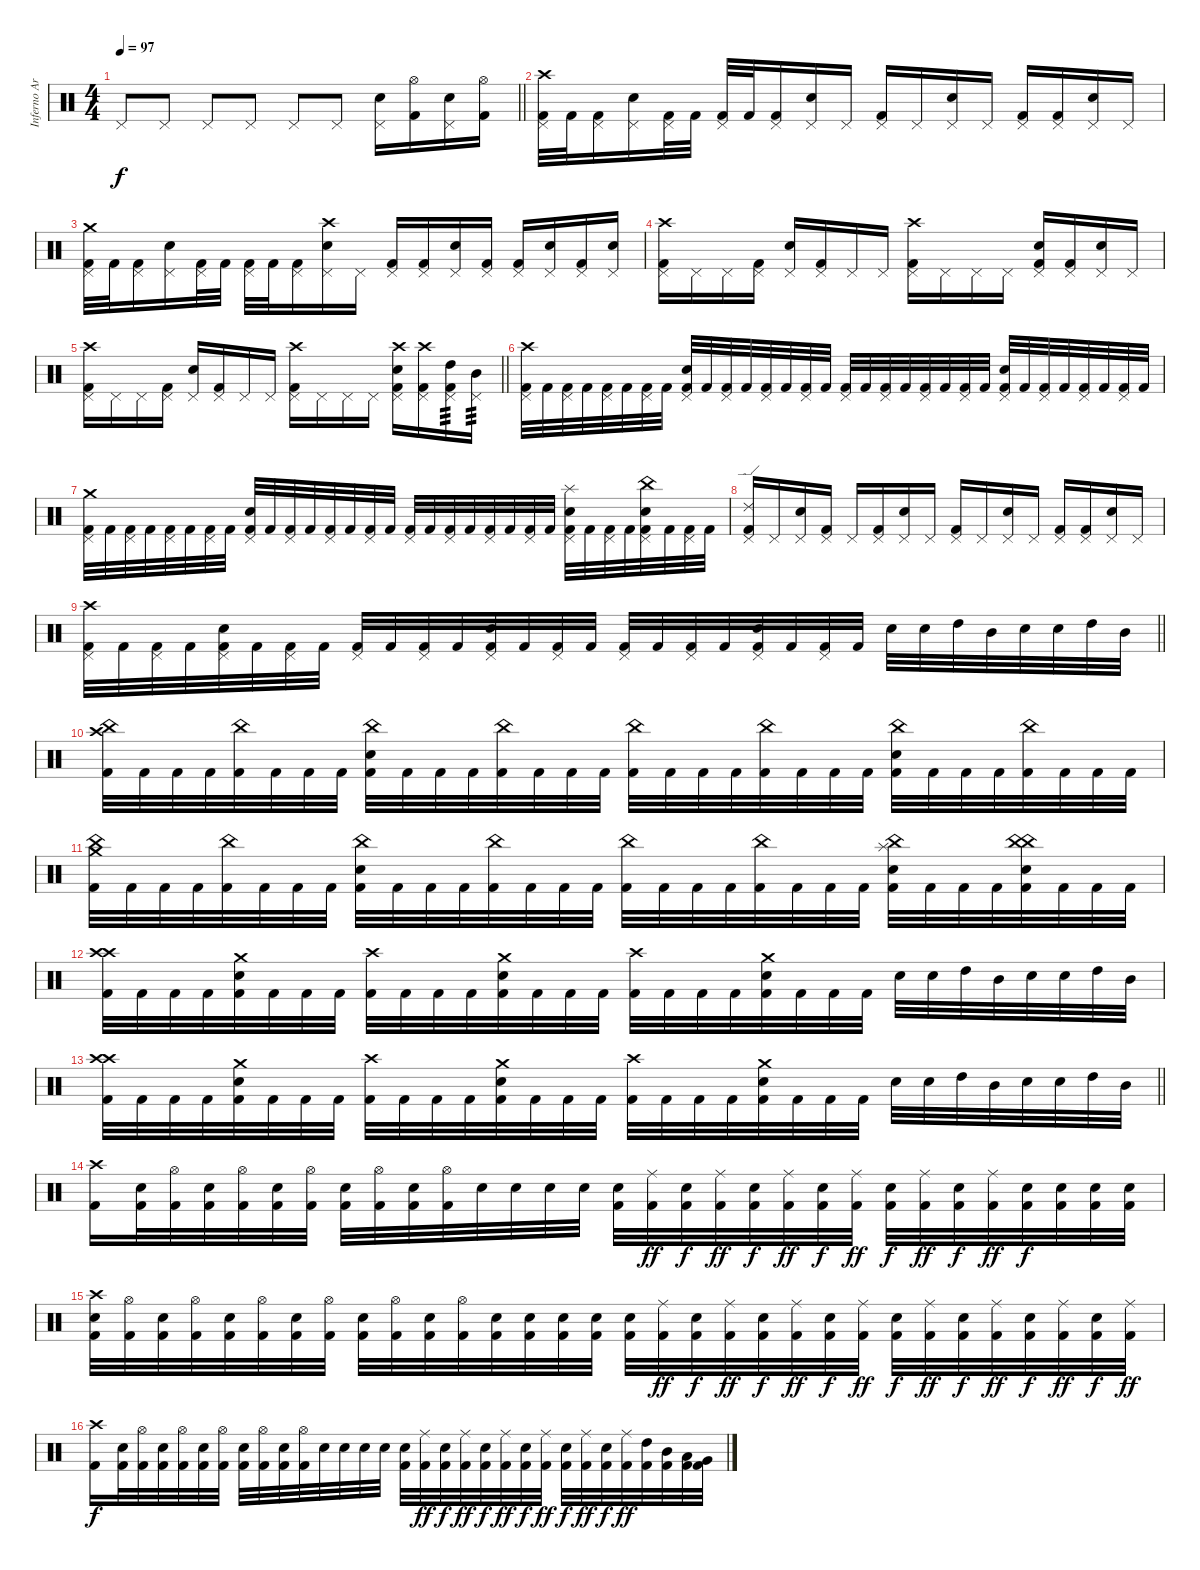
\track ("Inferno Art" "Inferno Ar") {instrument percussion bank 7}
\staff {score}
\articulation defaults
\ts (4 4)
\tempo 97
\clef neutral
\barLineRight lightlight
\ks c "Pedal Hi-Hat (hit)".8{dy f} "Pedal Hi-Hat (hit)".8 "Pedal Hi-Hat (hit)".8 "Pedal Hi-Hat (hit)".8 "Pedal Hi-Hat (hit)".8 "Pedal Hi-Hat (hit)".8
("Pedal Hi-Hat (hit)" "Electric Snare (hit)").16 ("Kick (hit) 2" "Hi-Hat (open)").16 ("Pedal Hi-Hat (hit)" "Electric Snare (hit)").16 ("Kick (hit) 2" "Hi-Hat (open)").16 |
("Pedal Hi-Hat (hit)" "Kick (hit) 2" "Crash high (hit)").32 "Kick (hit) 2".32 ("Pedal Hi-Hat (hit)" "Kick (hit) 2").16 ("Pedal Hi-Hat (hit)" "Electric Snare (hit)").16 ("Pedal Hi-Hat (hit)" "Kick (hit) 2").32 "Kick (hit) 2".32 ("Pedal Hi-Hat (hit)" "Kick (hit) 2").32 "Kick (hit) 2".32 ("Pedal Hi-Hat (hit)" "Kick (hit) 2").16 ("Pedal Hi-Hat (hit)" "Electric Snare (hit)").16 "Pedal Hi-Hat (hit)".16 ("Pedal Hi-Hat (hit)" "Kick (hit) 2").16 "Pedal Hi-Hat (hit)".16 ("Pedal Hi-Hat (hit)" "Electric Snare (hit)").16 "Pedal Hi-Hat (hit)".16 ("Pedal Hi-Hat (hit)" "Kick (hit) 2").16 ("Pedal Hi-Hat (hit)" "Kick (hit) 2").16 ("Pedal Hi-Hat (hit)" "Electric Snare (hit)").16 "Pedal Hi-Hat (hit)".16 |
("Pedal Hi-Hat (hit)" "Kick (hit) 2" "Crash medium (hit)").32 "Kick (hit) 2".32 ("Pedal Hi-Hat (hit)" "Kick (hit) 2").16 ("Pedal Hi-Hat (hit)" "Electric Snare (hit)").16 ("Pedal Hi-Hat (hit)" "Kick (hit) 2").32 "Kick (hit) 2".32 ("Pedal Hi-Hat (hit)" "Kick (hit) 2").32 "Kick (hit) 2".32 ("Pedal Hi-Hat (hit)" "Kick (hit) 2").16 ("Pedal Hi-Hat (hit)" "Electric Snare (hit)" "Crash high (hit)").16 "Pedal Hi-Hat (hit)".16 ("Pedal Hi-Hat (hit)" "Kick (hit) 2").16 ("Pedal Hi-Hat (hit)" "Kick (hit) 2").16 ("Pedal Hi-Hat (hit)" "Electric Snare (hit)").16 ("Pedal Hi-Hat (hit)" "Kick (hit) 2").16 ("Pedal Hi-Hat (hit)" "Kick (hit) 2").16 ("Pedal Hi-Hat (hit)" "Electric Snare (hit)").16 ("Pedal Hi-Hat (hit)" "Kick (hit) 2").16 ("Pedal Hi-Hat (hit)" "Electric Snare (hit)").16 |
("Pedal Hi-Hat (hit)" "Kick (hit) 2" "Crash high (hit)").16 "Pedal Hi-Hat (hit)".16 "Pedal Hi-Hat (hit)".16 ("Pedal Hi-Hat (hit)" "Kick (hit) 2").16 ("Pedal Hi-Hat (hit)" "Electric Snare (hit)").16 ("Pedal Hi-Hat (hit)" "Kick (hit) 2").16 "Pedal Hi-Hat (hit)".16 "Pedal Hi-Hat (hit)".16 ("Pedal Hi-Hat (hit)" "Kick (hit) 2" "Crash high (hit)").16 "Pedal Hi-Hat (hit)".16 "Pedal Hi-Hat (hit)".16 "Pedal Hi-Hat (hit)".16 ("Pedal Hi-Hat (hit)" "Electric Snare (hit)" "Kick (hit) 2").16 ("Pedal Hi-Hat (hit)" "Kick (hit) 2").16 ("Pedal Hi-Hat (hit)" "Electric Snare (hit)").16 "Pedal Hi-Hat (hit)".16 |
\barLineRight lightlight
("Pedal Hi-Hat (hit)" "Kick (hit) 2" "Crash high (hit)").16 "Pedal Hi-Hat (hit)".16 "Pedal Hi-Hat (hit)".16 ("Pedal Hi-Hat (hit)" "Kick (hit) 2").16 ("Pedal Hi-Hat (hit)" "Electric Snare (hit)").16 ("Pedal Hi-Hat (hit)" "Kick (hit) 2").16 "Pedal Hi-Hat (hit)".16 "Pedal Hi-Hat (hit)".16 ("Pedal Hi-Hat (hit)" "Kick (hit) 2" "Crash high (hit)").16 "Pedal Hi-Hat (hit)".16 "Pedal Hi-Hat (hit)".16 "Pedal Hi-Hat (hit)".16 ("Pedal Hi-Hat (hit)" "Electric Snare (hit)" "Kick (hit) 2" "Crash high (hit)").16 ("Pedal Hi-Hat (hit)" "Kick (hit) 2" "Crash high (hit)").16 ("Pedal Hi-Hat (hit)" "Kick (hit) 2" "High Tom (hit)").16{tp 3} ("Pedal Hi-Hat (hit)" "Mid Tom (hit)").16{tp 3} |
("Pedal Hi-Hat (hit)" "Kick (hit) 2" "Crash high (hit)").32 "Kick (hit) 2".32 ("Pedal Hi-Hat (hit)" "Kick (hit) 2").32 "Kick (hit) 2".32 ("Pedal Hi-Hat (hit)" "Kick (hit) 2").32 "Kick (hit) 2".32 ("Pedal Hi-Hat (hit)" "Kick (hit) 2").32 "Kick (hit) 2".32 ("Pedal Hi-Hat (hit)" "Electric Snare (hit)" "Kick (hit) 2").32 "Kick (hit) 2".32 ("Pedal Hi-Hat (hit)" "Kick (hit) 2").32 "Kick (hit) 2".32 ("Pedal Hi-Hat (hit)" "Kick (hit) 2").32 "Kick (hit) 2".32 ("Pedal Hi-Hat (hit)" "Kick (hit) 2").32 "Kick (hit) 2".32 ("Pedal Hi-Hat (hit)" "Kick (hit) 2").32 "Kick (hit) 2".32 ("Pedal Hi-Hat (hit)" "Kick (hit) 2").32 "Kick (hit) 2".32 ("Pedal Hi-Hat (hit)" "Kick (hit) 2").32 "Kick (hit) 2".32 ("Pedal Hi-Hat (hit)" "Kick (hit) 2").32 "Kick (hit) 2".32 ("Pedal Hi-Hat (hit)" "Electric Snare (hit)" "Kick (hit) 2").32 "Kick (hit) 2".32 ("Pedal Hi-Hat (hit)" "Kick (hit) 2").32 "Kick (hit) 2".32 ("Pedal Hi-Hat (hit)" "Kick (hit) 2").32 "Kick (hit) 2".32 ("Pedal Hi-Hat (hit)" "Kick (hit) 2").32 "Kick (hit) 2".32 |
("Pedal Hi-Hat (hit)" "Kick (hit) 2" "Crash medium (hit)").32 "Kick (hit) 2".32 ("Pedal Hi-Hat (hit)" "Kick (hit) 2").32 "Kick (hit) 2".32 ("Pedal Hi-Hat (hit)" "Kick (hit) 2").32 "Kick (hit) 2".32 ("Pedal Hi-Hat (hit)" "Kick (hit) 2").32 "Kick (hit) 2".32 ("Pedal Hi-Hat (hit)" "Electric Snare (hit)" "Kick (hit) 2").32 "Kick (hit) 2".32 ("Pedal Hi-Hat (hit)" "Kick (hit) 2").32 "Kick (hit) 2".32 ("Pedal Hi-Hat (hit)" "Kick (hit) 2").32 "Kick (hit) 2".32 ("Pedal Hi-Hat (hit)" "Kick (hit) 2").32 "Kick (hit) 2".32 ("Pedal Hi-Hat (hit)" "Kick (hit) 2").32 "Kick (hit) 2".32 ("Pedal Hi-Hat (hit)" "Kick (hit) 2").32 "Kick (hit) 2".32 ("Pedal Hi-Hat (hit)" "Kick (hit) 2").32 "Kick (hit) 2".32 ("Pedal Hi-Hat (hit)" "Kick (hit) 2").32 "Kick (hit) 2".32 ("Pedal Hi-Hat (hit)" "Electric Snare (hit)" "Kick (hit) 2" "Splash (hit)").32 "Kick (hit) 2".32 ("Pedal Hi-Hat (hit)" "Kick (hit) 2").32 "Kick (hit) 2".32 ("Pedal Hi-Hat (hit)" "Electric Snare (hit)" "Kick (hit) 2" "China (hit)").32 "Kick (hit) 2".32 ("Pedal Hi-Hat (hit)" "Kick (hit) 2").32 "Kick (hit) 2".32 |
("Pedal Hi-Hat (hit)" "Kick (hit) 2" "Ride (edge) 2").16 "Pedal Hi-Hat (hit)".16 ("Pedal Hi-Hat (hit)" "Electric Snare (hit)").16 ("Pedal Hi-Hat (hit)" "Kick (hit) 2").16 "Pedal Hi-Hat (hit)".16 ("Pedal Hi-Hat (hit)" "Kick (hit) 2").16 ("Pedal Hi-Hat (hit)" "Electric Snare (hit)").16 "Pedal Hi-Hat (hit)".16 ("Pedal Hi-Hat (hit)" "Kick (hit) 2").16 "Pedal Hi-Hat (hit)".16 ("Pedal Hi-Hat (hit)" "Electric Snare (hit)").16 "Pedal Hi-Hat (hit)".16 ("Pedal Hi-Hat (hit)" "Kick (hit) 2").16 ("Pedal Hi-Hat (hit)" "Kick (hit) 2").16 ("Pedal Hi-Hat (hit)" "Electric Snare (hit)").16 "Pedal Hi-Hat (hit)".16 |
\barLineRight lightlight
("Pedal Hi-Hat (hit)" "Kick (hit) 2" "Crash high (hit)").32 "Kick (hit) 2".32 ("Pedal Hi-Hat (hit)" "Kick (hit) 2").32 "Kick (hit) 2".32 ("Pedal Hi-Hat (hit)" "Electric Snare (hit)" "Kick (hit) 2").32 "Kick (hit) 2".32 ("Pedal Hi-Hat (hit)" "Kick (hit) 2").32 "Kick (hit) 2".32 ("Pedal Hi-Hat (hit)" "Kick (hit) 2").32 "Kick (hit) 2".32 ("Pedal Hi-Hat (hit)" "Kick (hit) 2").32 "Kick (hit) 2".32 ("Pedal Hi-Hat (hit)" "Electric Snare (hit)" "Kick (hit) 2").32 "Kick (hit) 2".32 ("Pedal Hi-Hat (hit)" "Kick (hit) 2").32 "Kick (hit) 2".32 ("Pedal Hi-Hat (hit)" "Kick (hit) 2").32 "Kick (hit) 2".32 ("Pedal Hi-Hat (hit)" "Kick (hit) 2").32 "Kick (hit) 2".32 ("Pedal Hi-Hat (hit)" "Electric Snare (hit)" "Kick (hit) 2").32 "Kick (hit) 2".32 ("Pedal Hi-Hat (hit)" "Kick (hit) 2").32 "Kick (hit) 2".32 "Electric Snare (hit)".32 "Electric Snare (hit)".32 "High Tom (hit)".32 "Mid Tom (hit)".32 "Electric Snare (hit)".32 "Electric Snare (hit)".32 "High Tom (hit)".32 "Mid Tom (hit)".32 |
("China (hit)" "Kick (hit) 2" "Crash high (hit)").32 "Kick (hit) 2".32 "Kick (hit) 2".32 "Kick (hit) 2".32 ("China (hit)" "Kick (hit) 2").32 "Kick (hit) 2".32 "Kick (hit) 2".32 "Kick (hit) 2".32 ("China (hit)" "Electric Snare (hit)" "Kick (hit) 2").32 "Kick (hit) 2".32 "Kick (hit) 2".32 "Kick (hit) 2".32 ("China (hit)" "Kick (hit) 2").32 "Kick (hit) 2".32 "Kick (hit) 2".32 "Kick (hit) 2".32 ("China (hit)" "Kick (hit) 2").32 "Kick (hit) 2".32 "Kick (hit) 2".32 "Kick (hit) 2".32 ("China (hit)" "Kick (hit) 2").32 "Kick (hit) 2".32 "Kick (hit) 2".32 "Kick (hit) 2".32 ("China (hit)" "Electric Snare (hit)" "Kick (hit) 2").32 "Kick (hit) 2".32 "Kick (hit) 2".32 "Kick (hit) 2".32 ("China (hit)" "Kick (hit) 2").32 "Kick (hit) 2".32 "Kick (hit) 2".32 "Kick (hit) 2".32 |
("China (hit)" "Kick (hit) 2" "Crash medium (hit)").32 "Kick (hit) 2".32 "Kick (hit) 2".32 "Kick (hit) 2".32 ("China (hit)" "Kick (hit) 2").32 "Kick (hit) 2".32 "Kick (hit) 2".32 "Kick (hit) 2".32 ("China (hit)" "Electric Snare (hit)" "Kick (hit) 2").32 "Kick (hit) 2".32 "Kick (hit) 2".32 "Kick (hit) 2".32 ("China (hit)" "Kick (hit) 2").32 "Kick (hit) 2".32 "Kick (hit) 2".32 "Kick (hit) 2".32 ("China (hit)" "Kick (hit) 2").32 "Kick (hit) 2".32 "Kick (hit) 2".32 "Kick (hit) 2".32 ("China (hit)" "Kick (hit) 2").32 "Kick (hit) 2".32 "Kick (hit) 2".32 "Kick (hit) 2".32 ("China (hit)" "Electric Snare (hit)" "Kick (hit) 2" "Splash (hit)").32 "Kick (hit) 2".32 "Kick (hit) 2".32 "Kick (hit) 2".32 ("China (hit)" "Electric Snare (hit)" "Kick (hit) 2" "China (hit)").32 "Kick (hit) 2".32 "Kick (hit) 2".32 "Kick (hit) 2".32 |
("Crash high (hit)" "Kick (hit) 2" "Crash high (hit)").32 "Kick (hit) 2".32 "Kick (hit) 2".32 "Kick (hit) 2".32 ("Crash medium (hit)" "Electric Snare (hit)" "Kick (hit) 2").32 "Kick (hit) 2".32 "Kick (hit) 2".32 "Kick (hit) 2".32 ("Crash high (hit)" "Kick (hit) 2").32 "Kick (hit) 2".32 "Kick (hit) 2".32 "Kick (hit) 2".32 ("Crash medium (hit)" "Electric Snare (hit)" "Kick (hit) 2").32 "Kick (hit) 2".32 "Kick (hit) 2".32 "Kick (hit) 2".32 ("Crash high (hit)" "Kick (hit) 2").32 "Kick (hit) 2".32 "Kick (hit) 2".32 "Kick (hit) 2".32 ("Crash medium (hit)" "Electric Snare (hit)" "Kick (hit) 2").32 "Kick (hit) 2".32 "Kick (hit) 2".32 "Kick (hit) 2".32 "Electric Snare (hit)".32 "Electric Snare (hit)".32 "High Tom (hit)".32 "Mid Tom (hit)".32 "Electric Snare (hit)".32 "Electric Snare (hit)".32 "High Tom (hit)".32 "Mid Tom (hit)".32 |
\barLineRight lightlight
("Crash high (hit)" "Kick (hit) 2" "Crash high (hit)").32 "Kick (hit) 2".32 "Kick (hit) 2".32 "Kick (hit) 2".32 ("Crash medium (hit)" "Electric Snare (hit)" "Kick (hit) 2").32 "Kick (hit) 2".32 "Kick (hit) 2".32 "Kick (hit) 2".32 ("Crash high (hit)" "Kick (hit) 2").32 "Kick (hit) 2".32 "Kick (hit) 2".32 "Kick (hit) 2".32 ("Crash medium (hit)" "Electric Snare (hit)" "Kick (hit) 2").32 "Kick (hit) 2".32 "Kick (hit) 2".32 "Kick (hit) 2".32 ("Crash high (hit)" "Kick (hit) 2").32 "Kick (hit) 2".32 "Kick (hit) 2".32 "Kick (hit) 2".32 ("Crash medium (hit)" "Electric Snare (hit)" "Kick (hit) 2").32 "Kick (hit) 2".32 "Kick (hit) 2".32 "Kick (hit) 2".32 "Electric Snare (hit)".32 "Electric Snare (hit)".32 "High Tom (hit)".32 "Mid Tom (hit)".32 "Electric Snare (hit)".32 "Electric Snare (hit)".32 "High Tom (hit)".32 "Mid Tom (hit)".32 |
("Crash high (hit)" "Kick (hit) 2").16 ("Electric Snare (hit)" "Kick (hit) 2").32 ("Hi-Hat (open)" "Kick (hit) 2").32 ("Electric Snare (hit)" "Kick (hit) 2").32 ("Hi-Hat (open)" "Kick (hit) 2").32 ("Electric Snare (hit)" "Kick (hit) 2").32 ("Hi-Hat (open)" "Kick (hit) 2").32 ("Electric Snare (hit)" "Kick (hit) 2").32 ("Hi-Hat (open)" "Kick (hit) 2").32 ("Electric Snare (hit)" "Kick (hit) 2").32 ("Hi-Hat (open)" "Kick (hit) 2").32 "Electric Snare (hit)".32 "Electric Snare (hit)".32 "Electric Snare (hit)".32 "Electric Snare (hit)".32 ("Electric Snare (hit)" "Kick (hit) 2").32 ("Ride (middle)" "Kick (hit) 2").32{dy ff} ("Electric Snare (hit)" "Kick (hit) 2").32{dy f} ("Ride (middle)" "Kick (hit) 2").32{dy ff} ("Electric Snare (hit)" "Kick (hit) 2").32{dy f} ("Ride (middle)" "Kick (hit) 2").32{dy ff} ("Electric Snare (hit)" "Kick (hit) 2").32{dy f} ("Ride (middle)" "Kick (hit) 2").32{dy ff} ("Electric Snare (hit)" "Kick (hit) 2").32{dy f} ("Ride (middle)" "Kick (hit) 2").32{dy ff} ("Electric Snare (hit)" "Kick (hit) 2").32{dy f} ("Ride (middle)" "Kick (hit) 2").32{dy ff} ("Electric Snare (hit)" "Kick (hit) 2").32{dy f} ("Electric Snare (hit)" "Kick (hit) 2").32 ("Electric Snare (hit)" "Kick (hit) 2").32 ("Electric Snare (hit)" "Kick (hit) 2").32 |
("Crash high (hit)" "Electric Snare (hit)" "Kick (hit) 2").32 ("Hi-Hat (open)" "Kick (hit) 2").32 ("Electric Snare (hit)" "Kick (hit) 2").32 ("Hi-Hat (open)" "Kick (hit) 2").32 ("Electric Snare (hit)" "Kick (hit) 2").32 ("Hi-Hat (open)" "Kick (hit) 2").32 ("Electric Snare (hit)" "Kick (hit) 2").32 ("Hi-Hat (open)" "Kick (hit) 2").32 ("Electric Snare (hit)" "Kick (hit) 2").32 ("Hi-Hat (open)" "Kick (hit) 2").32 ("Electric Snare (hit)" "Kick (hit) 2").32 ("Hi-Hat (open)" "Kick (hit) 2").32 ("Electric Snare (hit)" "Kick (hit) 2").32 ("Electric Snare (hit)" "Kick (hit) 2").32 ("Electric Snare (hit)" "Kick (hit) 2").32 ("Electric Snare (hit)" "Kick (hit) 2").32 ("Electric Snare (hit)" "Kick (hit) 2").32 ("Ride (middle)" "Kick (hit) 2").32{dy ff} ("Electric Snare (hit)" "Kick (hit) 2").32{dy f} ("Ride (middle)" "Kick (hit) 2").32{dy ff} ("Electric Snare (hit)" "Kick (hit) 2").32{dy f} ("Ride (middle)" "Kick (hit) 2").32{dy ff} ("Electric Snare (hit)" "Kick (hit) 2").32{dy f} ("Ride (middle)" "Kick (hit) 2").32{dy ff} ("Electric Snare (hit)" "Kick (hit) 2").32{dy f} ("Ride (middle)" "Kick (hit) 2").32{dy ff} ("Electric Snare (hit)" "Kick (hit) 2").32{dy f} ("Ride (middle)" "Kick (hit) 2").32{dy ff} ("Electric Snare (hit)" "Kick (hit) 2").32{dy f} ("Ride (middle)" "Kick (hit) 2").32{dy ff} ("Electric Snare (hit)" "Kick (hit) 2").32{dy f} ("Ride (middle)" "Kick (hit) 2").32{dy ff} |
("Crash high (hit)" "Kick (hit) 2").16{dy f} ("Electric Snare (hit)" "Kick (hit) 2").32 ("Hi-Hat (open)" "Kick (hit) 2").32 ("Electric Snare (hit)" "Kick (hit) 2").32 ("Hi-Hat (open)" "Kick (hit) 2").32 ("Electric Snare (hit)" "Kick (hit) 2").32 ("Hi-Hat (open)" "Kick (hit) 2").32 ("Electric Snare (hit)" "Kick (hit) 2").32 ("Hi-Hat (open)" "Kick (hit) 2").32 ("Electric Snare (hit)" "Kick (hit) 2").32 ("Hi-Hat (open)" "Kick (hit) 2").32 "Electric Snare (hit)".32 "Electric Snare (hit)".32 "Electric Snare (hit)".32 "Electric Snare (hit)".32 ("Electric Snare (hit)" "Kick (hit) 2").32 ("Ride (middle)" "Kick (hit) 2").32{dy ff} ("Electric Snare (hit)" "Kick (hit) 2").32{dy f} ("Ride (middle)" "Kick (hit) 2").32{dy ff} ("Electric Snare (hit)" "Kick (hit) 2").32{dy f} ("Ride (middle)" "Kick (hit) 2").32{dy ff} ("Electric Snare (hit)" "Kick (hit) 2").32{dy f} ("Ride (middle)" "Kick (hit) 2").32{dy ff} ("Electric Snare (hit)" "Kick (hit) 2").32{dy f} ("Ride (middle)" "Kick (hit) 2").32{dy ff} ("Electric Snare (hit)" "Kick (hit) 2").32{dy f} ("Ride (middle)" "Kick (hit) 2").32{dy ff} ("High Tom (hit)" "Kick (hit) 2").32 ("Mid Tom (hit)" "Kick (hit) 2").32 ("Low Tom (hit)" "Kick (hit) 2").32 ("Very Low Tom (hit)" "Kick (hit) 2").32
